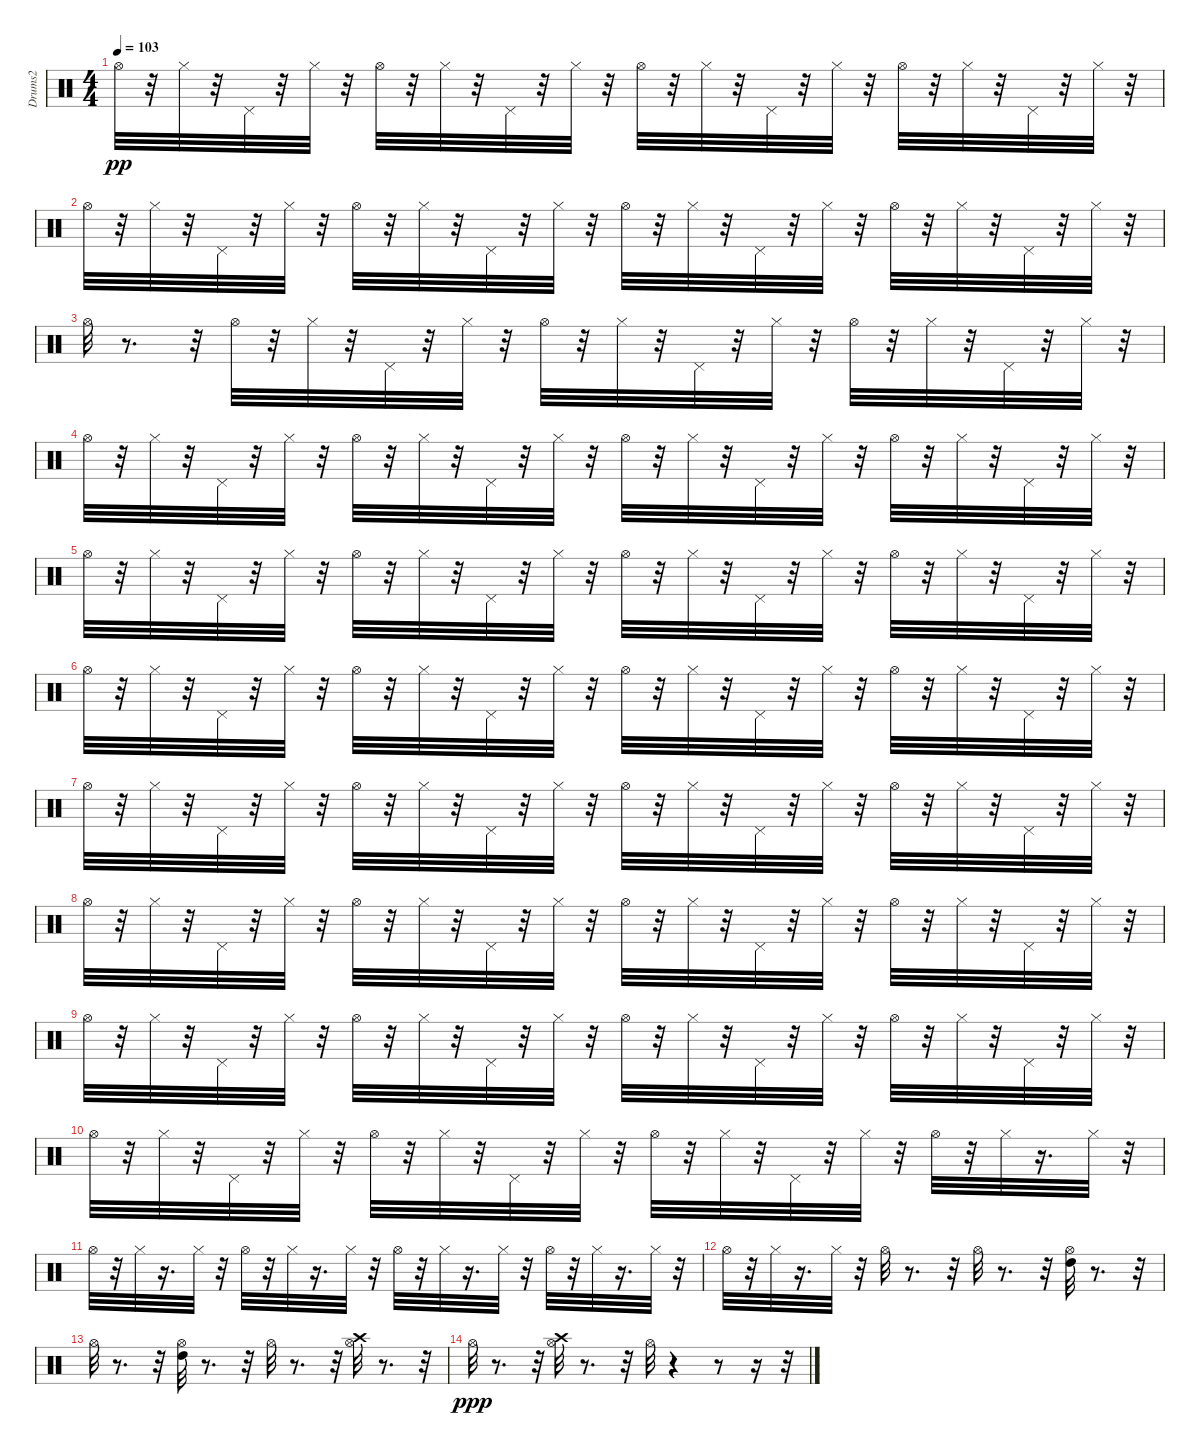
\track ("Drums2" "Drums2") {instrument percussion}
\staff {score}
\articulation defaults
\ts (4 4)
\tempo 103
\clef neutral
\ks c "Hi-Hat (open)".32{dy pp}
r.32 "Hi-Hat (closed)".32 r.32 "Pedal Hi-Hat (hit)".32 r.32 "Hi-Hat (closed)".32 r.32 "Hi-Hat (open)".32 r.32 "Hi-Hat (closed)".32 r.32 "Pedal Hi-Hat (hit)".32 r.32 "Hi-Hat (closed)".32 r.32 "Hi-Hat (open)".32 r.32 "Hi-Hat (closed)".32 r.32 "Pedal Hi-Hat (hit)".32 r.32 "Hi-Hat (closed)".32 r.32 "Hi-Hat (open)".32 r.32 "Hi-Hat (closed)".32 r.32 "Pedal Hi-Hat (hit)".32 r.32 "Hi-Hat (closed)".32 r.32 |
"Hi-Hat (open)".32 r.32 "Hi-Hat (closed)".32 r.32 "Pedal Hi-Hat (hit)".32 r.32 "Hi-Hat (closed)".32 r.32 "Hi-Hat (open)".32 r.32 "Hi-Hat (closed)".32 r.32 "Pedal Hi-Hat (hit)".32 r.32 "Hi-Hat (closed)".32 r.32 "Hi-Hat (open)".32 r.32 "Hi-Hat (closed)".32 r.32 "Pedal Hi-Hat (hit)".32 r.32 "Hi-Hat (closed)".32 r.32 "Hi-Hat (open)".32 r.32 "Hi-Hat (closed)".32 r.32 "Pedal Hi-Hat (hit)".32 r.32 "Hi-Hat (closed)".32 r.32 |
"Hi-Hat (open)".32 r.8{d} r.32 "Hi-Hat (open)".32 r.32 "Hi-Hat (closed)".32 r.32 "Pedal Hi-Hat (hit)".32 r.32 "Hi-Hat (closed)".32 r.32 "Hi-Hat (open)".32 r.32 "Hi-Hat (closed)".32 r.32 "Pedal Hi-Hat (hit)".32 r.32 "Hi-Hat (closed)".32 r.32 "Hi-Hat (open)".32 r.32 "Hi-Hat (closed)".32 r.32 "Pedal Hi-Hat (hit)".32 r.32 "Hi-Hat (closed)".32 r.32 |
"Hi-Hat (open)".32 r.32 "Hi-Hat (closed)".32 r.32 "Pedal Hi-Hat (hit)".32 r.32 "Hi-Hat (closed)".32 r.32 "Hi-Hat (open)".32 r.32 "Hi-Hat (closed)".32 r.32 "Pedal Hi-Hat (hit)".32 r.32 "Hi-Hat (closed)".32 r.32 "Hi-Hat (open)".32 r.32 "Hi-Hat (closed)".32 r.32 "Pedal Hi-Hat (hit)".32 r.32 "Hi-Hat (closed)".32 r.32 "Hi-Hat (open)".32 r.32 "Hi-Hat (closed)".32 r.32 "Pedal Hi-Hat (hit)".32 r.32 "Hi-Hat (closed)".32 r.32 |
"Hi-Hat (open)".32 r.32 "Hi-Hat (closed)".32 r.32 "Pedal Hi-Hat (hit)".32 r.32 "Hi-Hat (closed)".32 r.32 "Hi-Hat (open)".32 r.32 "Hi-Hat (closed)".32 r.32 "Pedal Hi-Hat (hit)".32 r.32 "Hi-Hat (closed)".32 r.32 "Hi-Hat (open)".32 r.32 "Hi-Hat (closed)".32 r.32 "Pedal Hi-Hat (hit)".32 r.32 "Hi-Hat (closed)".32 r.32 "Hi-Hat (open)".32 r.32 "Hi-Hat (closed)".32 r.32 "Pedal Hi-Hat (hit)".32 r.32 "Hi-Hat (closed)".32 r.32 |
"Hi-Hat (open)".32 r.32 "Hi-Hat (closed)".32 r.32 "Pedal Hi-Hat (hit)".32 r.32 "Hi-Hat (closed)".32 r.32 "Hi-Hat (open)".32 r.32 "Hi-Hat (closed)".32 r.32 "Pedal Hi-Hat (hit)".32 r.32 "Hi-Hat (closed)".32 r.32 "Hi-Hat (open)".32 r.32 "Hi-Hat (closed)".32 r.32 "Pedal Hi-Hat (hit)".32 r.32 "Hi-Hat (closed)".32 r.32 "Hi-Hat (open)".32 r.32 "Hi-Hat (closed)".32 r.32 "Pedal Hi-Hat (hit)".32 r.32 "Hi-Hat (closed)".32 r.32 |
"Hi-Hat (open)".32 r.32 "Hi-Hat (closed)".32 r.32 "Pedal Hi-Hat (hit)".32 r.32 "Hi-Hat (closed)".32 r.32 "Hi-Hat (open)".32 r.32 "Hi-Hat (closed)".32 r.32 "Pedal Hi-Hat (hit)".32 r.32 "Hi-Hat (closed)".32 r.32 "Hi-Hat (open)".32 r.32 "Hi-Hat (closed)".32 r.32 "Pedal Hi-Hat (hit)".32 r.32 "Hi-Hat (closed)".32 r.32 "Hi-Hat (open)".32 r.32 "Hi-Hat (closed)".32 r.32 "Pedal Hi-Hat (hit)".32 r.32 "Hi-Hat (closed)".32 r.32 |
"Hi-Hat (open)".32 r.32 "Hi-Hat (closed)".32 r.32 "Pedal Hi-Hat (hit)".32 r.32 "Hi-Hat (closed)".32 r.32 "Hi-Hat (open)".32 r.32 "Hi-Hat (closed)".32 r.32 "Pedal Hi-Hat (hit)".32 r.32 "Hi-Hat (closed)".32 r.32 "Hi-Hat (open)".32 r.32 "Hi-Hat (closed)".32 r.32 "Pedal Hi-Hat (hit)".32 r.32 "Hi-Hat (closed)".32 r.32 "Hi-Hat (open)".32 r.32 "Hi-Hat (closed)".32 r.32 "Pedal Hi-Hat (hit)".32 r.32 "Hi-Hat (closed)".32 r.32 |
"Hi-Hat (open)".32 r.32 "Hi-Hat (closed)".32 r.32 "Pedal Hi-Hat (hit)".32 r.32 "Hi-Hat (closed)".32 r.32 "Hi-Hat (open)".32 r.32 "Hi-Hat (closed)".32 r.32 "Pedal Hi-Hat (hit)".32 r.32 "Hi-Hat (closed)".32 r.32 "Hi-Hat (open)".32 r.32 "Hi-Hat (closed)".32 r.32 "Pedal Hi-Hat (hit)".32 r.32 "Hi-Hat (closed)".32 r.32 "Hi-Hat (open)".32 r.32 "Hi-Hat (closed)".32 r.32 "Pedal Hi-Hat (hit)".32 r.32 "Hi-Hat (closed)".32 r.32 |
"Hi-Hat (open)".32 r.32 "Hi-Hat (closed)".32 r.32 "Pedal Hi-Hat (hit)".32 r.32 "Hi-Hat (closed)".32 r.32 "Hi-Hat (open)".32 r.32 "Hi-Hat (closed)".32 r.32 "Pedal Hi-Hat (hit)".32 r.32 "Hi-Hat (closed)".32 r.32 "Hi-Hat (open)".32 r.32 "Hi-Hat (closed)".32 r.32 "Pedal Hi-Hat (hit)".32 r.32 "Hi-Hat (closed)".32 r.32 "Hi-Hat (open)".32 r.32 "Hi-Hat (closed)".32 r.16{d} "Hi-Hat (closed)".32 r.32 |
"Hi-Hat (open)".32 r.32 "Hi-Hat (closed)".32 r.16{d} "Hi-Hat (closed)".32 r.32 "Hi-Hat (open)".32 r.32 "Hi-Hat (closed)".32 r.16{d} "Hi-Hat (closed)".32 r.32 "Hi-Hat (open)".32 r.32 "Hi-Hat (closed)".32 r.16{d} "Hi-Hat (closed)".32 r.32 "Hi-Hat (open)".32 r.32 "Hi-Hat (closed)".32 r.16{d} "Hi-Hat (closed)".32 r.32 |
"Hi-Hat (open)".32 r.32 "Hi-Hat (closed)".32 r.16{d} "Hi-Hat (closed)".32 r.32 "Hi-Hat (open)".32 r.8{d} r.32 "Hi-Hat (open)".32 r.8{d} r.32 ("High Tom (hit)" "Hi-Hat (open)").32 r.8{d} r.32 |
"Hi-Hat (open)".32 r.8{d} r.32 ("High Tom (hit)" "Hi-Hat (open)").32 r.8{d} r.32 "Hi-Hat (open)".32 r.8{d} r.32 ("Crash high (hit)" "Hi-Hat (open)").32 r.8{d} r.32 |
"Hi-Hat (open)".32{dy ppp} r.8{d} r.32 ("Crash high (hit)" "Hi-Hat (open)").32 r.8{d} r.32 "Hi-Hat (open)".32 r.4 r.8 r.16 r.32
